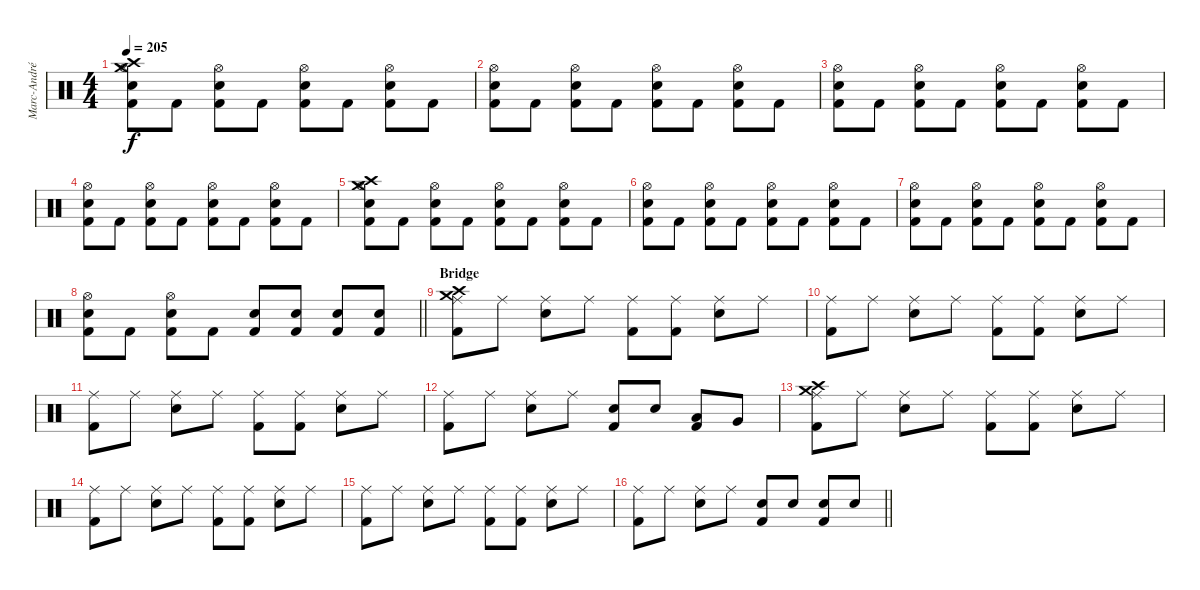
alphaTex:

\track ("Marc-André Barabé" "Marc-André") {instrument percussion}
\staff {score}
\articulation defaults
\ts (4 4)
\tempo 205
\clef neutral
\ks c
("Crash high (hit)" "Crash medium (hit)" "Hi-Hat (open)" "Electric Snare (hit)" "Kick (hit) 2"{tr (36 32)}).8{dy f} "Kick (hit) 2"{tr (36 32)}.8 ("Hi-Hat (open)" "Electric Snare (hit)" "Kick (hit) 2"{tr (36 32)}).8 "Kick (hit) 2"{tr (36 32)}.8 ("Hi-Hat (open)" "Electric Snare (hit)" "Kick (hit) 2"{tr (36 32)}).8 "Kick (hit) 2"{tr (36 32)}.8 ("Hi-Hat (open)" "Electric Snare (hit)" "Kick (hit) 2"{tr (36 32)}).8 "Kick (hit) 2"{tr (36 32)}.8 |
("Hi-Hat (open)" "Electric Snare (hit)" "Kick (hit) 2"{tr (36 32)}).8 "Kick (hit) 2"{tr (36 32)}.8 ("Hi-Hat (open)" "Electric Snare (hit)" "Kick (hit) 2"{tr (36 32)}).8 "Kick (hit) 2"{tr (36 32)}.8 ("Hi-Hat (open)" "Electric Snare (hit)" "Kick (hit) 2"{tr (36 32)}).8 "Kick (hit) 2"{tr (36 32)}.8 ("Hi-Hat (open)" "Electric Snare (hit)" "Kick (hit) 2"{tr (36 32)}).8 "Kick (hit) 2"{tr (36 32)}.8 |
("Hi-Hat (open)" "Electric Snare (hit)" "Kick (hit) 2"{tr (36 32)}).8 "Kick (hit) 2"{tr (36 32)}.8 ("Hi-Hat (open)" "Electric Snare (hit)" "Kick (hit) 2"{tr (36 32)}).8 "Kick (hit) 2"{tr (36 32)}.8 ("Hi-Hat (open)" "Electric Snare (hit)" "Kick (hit) 2"{tr (36 32)}).8 "Kick (hit) 2"{tr (36 32)}.8 ("Hi-Hat (open)" "Electric Snare (hit)" "Kick (hit) 2"{tr (36 32)}).8 "Kick (hit) 2"{tr (36 32)}.8 |
("Hi-Hat (open)" "Electric Snare (hit)" "Kick (hit) 2"{tr (36 32)}).8 "Kick (hit) 2"{tr (36 32)}.8 ("Hi-Hat (open)" "Electric Snare (hit)" "Kick (hit) 2"{tr (36 32)}).8 "Kick (hit) 2"{tr (36 32)}.8 ("Hi-Hat (open)" "Electric Snare (hit)" "Kick (hit) 2"{tr (36 32)}).8 "Kick (hit) 2"{tr (36 32)}.8 ("Hi-Hat (open)" "Electric Snare (hit)" "Kick (hit) 2"{tr (36 32)}).8 "Kick (hit) 2"{tr (36 32)}.8 |
("Crash high (hit)" "Crash medium (hit)" "Hi-Hat (open)" "Electric Snare (hit)" "Kick (hit) 2"{tr (36 32)}).8 "Kick (hit) 2"{tr (36 32)}.8 ("Hi-Hat (open)" "Electric Snare (hit)" "Kick (hit) 2"{tr (36 32)}).8 "Kick (hit) 2"{tr (36 32)}.8 ("Hi-Hat (open)" "Electric Snare (hit)" "Kick (hit) 2"{tr (36 32)}).8 "Kick (hit) 2"{tr (36 32)}.8 ("Hi-Hat (open)" "Electric Snare (hit)" "Kick (hit) 2"{tr (36 32)}).8 "Kick (hit) 2"{tr (36 32)}.8 |
("Hi-Hat (open)" "Electric Snare (hit)" "Kick (hit) 2"{tr (36 32)}).8 "Kick (hit) 2"{tr (36 32)}.8 ("Hi-Hat (open)" "Electric Snare (hit)" "Kick (hit) 2"{tr (36 32)}).8 "Kick (hit) 2"{tr (36 32)}.8 ("Hi-Hat (open)" "Electric Snare (hit)" "Kick (hit) 2"{tr (36 32)}).8 "Kick (hit) 2"{tr (36 32)}.8 ("Hi-Hat (open)" "Electric Snare (hit)" "Kick (hit) 2"{tr (36 32)}).8 "Kick (hit) 2"{tr (36 32)}.8 |
("Hi-Hat (open)" "Electric Snare (hit)" "Kick (hit) 2"{tr (36 32)}).8 "Kick (hit) 2"{tr (36 32)}.8 ("Hi-Hat (open)" "Electric Snare (hit)" "Kick (hit) 2"{tr (36 32)}).8 "Kick (hit) 2"{tr (36 32)}.8 ("Hi-Hat (open)" "Electric Snare (hit)" "Kick (hit) 2"{tr (36 32)}).8 "Kick (hit) 2"{tr (36 32)}.8 ("Hi-Hat (open)" "Electric Snare (hit)" "Kick (hit) 2"{tr (36 32)}).8 "Kick (hit) 2"{tr (36 32)}.8 |
\barLineRight lightlight
("Hi-Hat (open)" "Electric Snare (hit)" "Kick (hit) 2").8 "Kick (hit) 2".8 ("Hi-Hat (open)" "Electric Snare (hit)" "Kick (hit) 2").8 "Kick (hit) 2".8 ("Electric Snare (hit)"{tr (4 32)} "Kick (hit) 2").8 ("Electric Snare (hit)"{tr (4 32)} "Kick (hit) 2").8 ("Electric Snare (hit)"{tr (4 32)} "Kick (hit) 2").8 ("Electric Snare (hit)"{tr (4 32)} "Kick (hit) 2").8 |
\section ("" "Bridge")
("Crash high (hit)" "Crash medium (hit)" "Ride (middle)" "Kick (hit) 2").8 "Ride (middle)".8 ("Ride (middle)" "Electric Snare (hit)").8 "Ride (middle)".8 ("Ride (middle)" "Kick (hit) 2").8 ("Ride (middle)" "Kick (hit) 2").8 ("Ride (middle)" "Electric Snare (hit)").8 "Ride (middle)".8 |
("Ride (middle)" "Kick (hit) 2").8 "Ride (middle)".8 ("Ride (middle)" "Electric Snare (hit)").8 "Ride (middle)".8 ("Ride (middle)" "Kick (hit) 2").8 ("Ride (middle)" "Kick (hit) 2").8 ("Ride (middle)" "Electric Snare (hit)").8 "Ride (middle)".8 |
("Ride (middle)" "Kick (hit) 2").8 "Ride (middle)".8 ("Ride (middle)" "Electric Snare (hit)").8 "Ride (middle)".8 ("Ride (middle)" "Kick (hit) 2").8 ("Ride (middle)" "Kick (hit) 2").8 ("Ride (middle)" "Electric Snare (hit)").8 "Ride (middle)".8 |
("Ride (middle)" "Kick (hit) 2").8 "Ride (middle)".8 ("Ride (middle)" "Electric Snare (hit)").8 "Ride (middle)".8 ("Electric Snare (hit)"{tr (4 32)} "Kick (hit) 2").8 "Electric Snare (hit)"{tr (4 32)}.8 ("Low Tom (hit)"{tr (4 32)} "Kick (hit) 2").8 "Very Low Tom (hit)"{tr (4 32)}.8 |
("Crash high (hit)" "Crash medium (hit)" "Ride (middle)" "Kick (hit) 2").8 "Ride (middle)".8 ("Ride (middle)" "Electric Snare (hit)").8 "Ride (middle)".8 ("Ride (middle)" "Kick (hit) 2").8 ("Ride (middle)" "Kick (hit) 2").8 ("Ride (middle)" "Electric Snare (hit)").8 "Ride (middle)".8 |
("Ride (middle)" "Kick (hit) 2").8 "Ride (middle)".8 ("Ride (middle)" "Electric Snare (hit)").8 "Ride (middle)".8 ("Ride (middle)" "Kick (hit) 2").8 ("Ride (middle)" "Kick (hit) 2").8 ("Ride (middle)" "Electric Snare (hit)").8 "Ride (middle)".8 |
("Ride (middle)" "Kick (hit) 2").8 "Ride (middle)".8 ("Ride (middle)" "Electric Snare (hit)").8 "Ride (middle)".8 ("Ride (middle)" "Kick (hit) 2").8 ("Ride (middle)" "Kick (hit) 2").8 ("Ride (middle)" "Electric Snare (hit)").8 "Ride (middle)".8 |
\barLineRight lightlight
("Ride (middle)" "Kick (hit) 2").8 "Ride (middle)".8 ("Ride (middle)" "Electric Snare (hit)").8 "Ride (middle)".8 ("Electric Snare (hit)"{tr (4 32)} "Kick (hit) 2").8 "Electric Snare (hit)"{tr (4 32)}.8 ("Electric Snare (hit)"{tr (4 32)} "Kick (hit) 2").8 "Electric Snare (hit)"{tr (4 32)}.8
